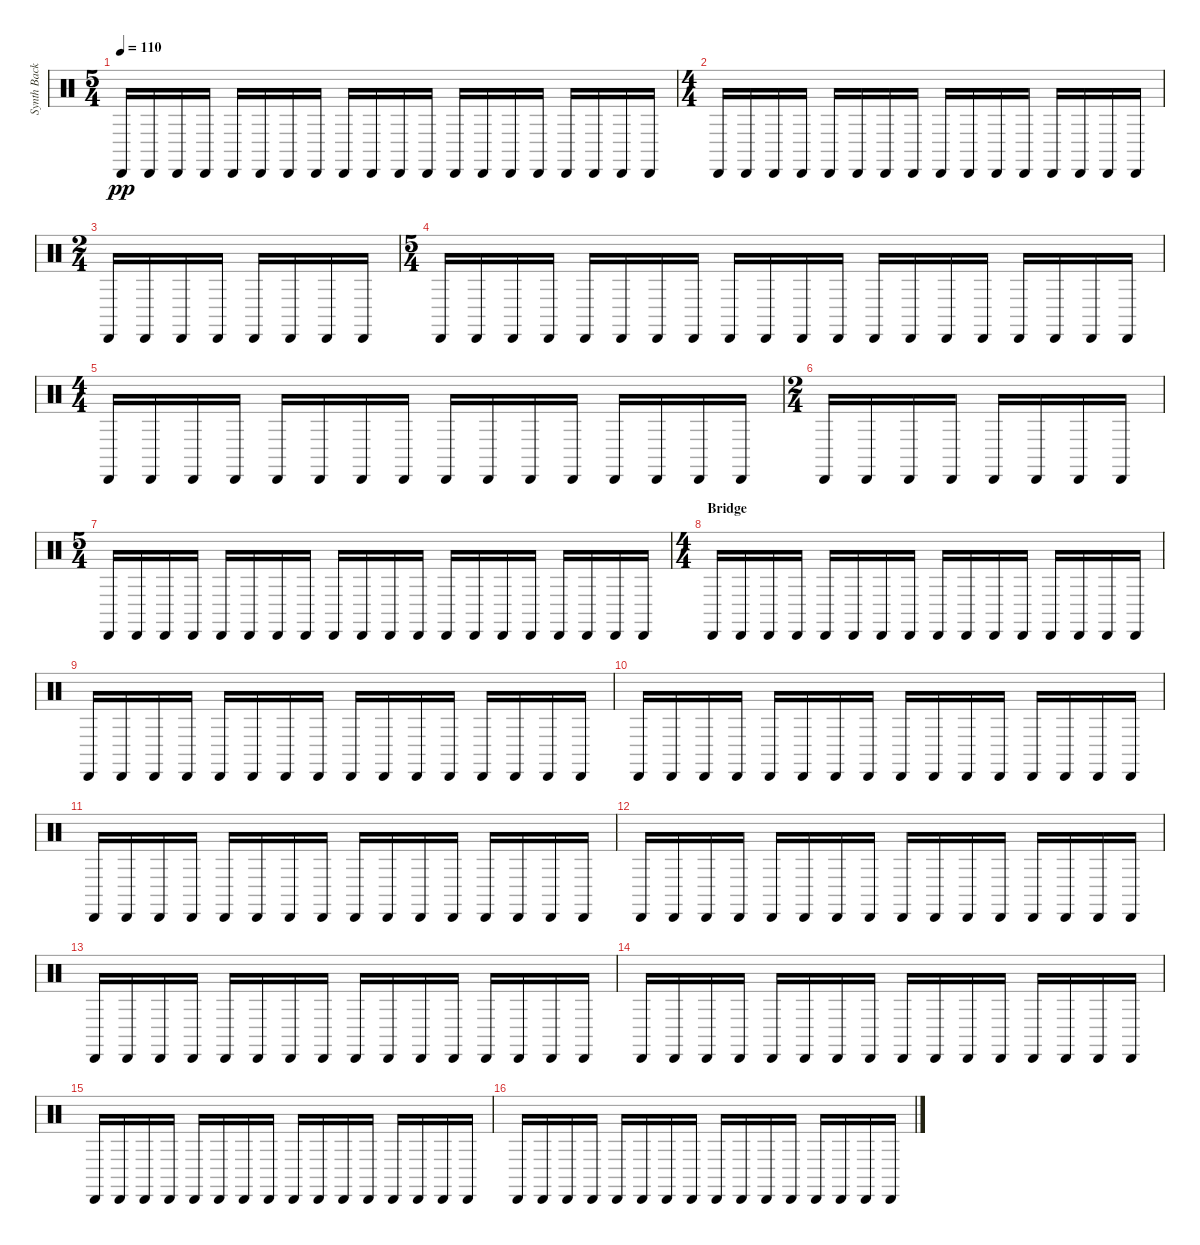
\track ("Synth Background Rhythm" "Synth Back") {instrument percussion}
\staff {score}
\articulation defaults
\ts (5 4)
\tempo 110
\clef neutral
\ks c "Cabasa (hit)".16{dy pp} "Cabasa (hit)".16 "Cabasa (hit)".16 "Cabasa (hit)".16 "Cabasa (hit)".16 "Cabasa (hit)".16 "Cabasa (hit)".16 "Cabasa (hit)".16 "Cabasa (hit)".16 "Cabasa (hit)".16 "Cabasa (hit)".16 "Cabasa (hit)".16 "Cabasa (hit)".16 "Cabasa (hit)".16 "Cabasa (hit)".16 "Cabasa (hit)".16 "Cabasa (hit)".16 "Cabasa (hit)".16 "Cabasa (hit)".16 "Cabasa (hit)".16
|
\ts (4 4)
"Cabasa (hit)".16 "Cabasa (hit)".16 "Cabasa (hit)".16 "Cabasa (hit)".16 "Cabasa (hit)".16 "Cabasa (hit)".16 "Cabasa (hit)".16 "Cabasa (hit)".16 "Cabasa (hit)".16 "Cabasa (hit)".16 "Cabasa (hit)".16 "Cabasa (hit)".16 "Cabasa (hit)".16 "Cabasa (hit)".16 "Cabasa (hit)".16 "Cabasa (hit)".16 |
\ts (2 4)
"Cabasa (hit)".16 "Cabasa (hit)".16 "Cabasa (hit)".16 "Cabasa (hit)".16 "Cabasa (hit)".16 "Cabasa (hit)".16 "Cabasa (hit)".16 "Cabasa (hit)".16 |
\ts (5 4)
"Cabasa (hit)".16 "Cabasa (hit)".16 "Cabasa (hit)".16 "Cabasa (hit)".16 "Cabasa (hit)".16 "Cabasa (hit)".16 "Cabasa (hit)".16 "Cabasa (hit)".16 "Cabasa (hit)".16 "Cabasa (hit)".16 "Cabasa (hit)".16 "Cabasa (hit)".16 "Cabasa (hit)".16 "Cabasa (hit)".16 "Cabasa (hit)".16 "Cabasa (hit)".16 "Cabasa (hit)".16 "Cabasa (hit)".16 "Cabasa (hit)".16 "Cabasa (hit)".16 |
\ts (4 4)
"Cabasa (hit)".16 "Cabasa (hit)".16 "Cabasa (hit)".16 "Cabasa (hit)".16 "Cabasa (hit)".16 "Cabasa (hit)".16 "Cabasa (hit)".16 "Cabasa (hit)".16 "Cabasa (hit)".16 "Cabasa (hit)".16 "Cabasa (hit)".16 "Cabasa (hit)".16 "Cabasa (hit)".16 "Cabasa (hit)".16 "Cabasa (hit)".16 "Cabasa (hit)".16 |
\ts (2 4)
"Cabasa (hit)".16 "Cabasa (hit)".16 "Cabasa (hit)".16 "Cabasa (hit)".16 "Cabasa (hit)".16 "Cabasa (hit)".16 "Cabasa (hit)".16 "Cabasa (hit)".16 |
\ts (5 4)
"Cabasa (hit)".16 "Cabasa (hit)".16 "Cabasa (hit)".16 "Cabasa (hit)".16 "Cabasa (hit)".16 "Cabasa (hit)".16 "Cabasa (hit)".16 "Cabasa (hit)".16 "Cabasa (hit)".16 "Cabasa (hit)".16 "Cabasa (hit)".16 "Cabasa (hit)".16 "Cabasa (hit)".16 "Cabasa (hit)".16 "Cabasa (hit)".16 "Cabasa (hit)".16 "Cabasa (hit)".16 "Cabasa (hit)".16 "Cabasa (hit)".16 "Cabasa (hit)".16 |
\ts (4 4)
\section ("" "Bridge")
"Cabasa (hit)".16 "Cabasa (hit)".16 "Cabasa (hit)".16 "Cabasa (hit)".16 "Cabasa (hit)".16 "Cabasa (hit)".16 "Cabasa (hit)".16 "Cabasa (hit)".16 "Cabasa (hit)".16 "Cabasa (hit)".16 "Cabasa (hit)".16 "Cabasa (hit)".16 "Cabasa (hit)".16 "Cabasa (hit)".16 "Cabasa (hit)".16 "Cabasa (hit)".16 |
"Cabasa (hit)".16 "Cabasa (hit)".16 "Cabasa (hit)".16 "Cabasa (hit)".16 "Cabasa (hit)".16 "Cabasa (hit)".16 "Cabasa (hit)".16 "Cabasa (hit)".16 "Cabasa (hit)".16 "Cabasa (hit)".16 "Cabasa (hit)".16 "Cabasa (hit)".16 "Cabasa (hit)".16 "Cabasa (hit)".16 "Cabasa (hit)".16 "Cabasa (hit)".16 |
"Cabasa (hit)".16 "Cabasa (hit)".16 "Cabasa (hit)".16 "Cabasa (hit)".16 "Cabasa (hit)".16 "Cabasa (hit)".16 "Cabasa (hit)".16 "Cabasa (hit)".16 "Cabasa (hit)".16 "Cabasa (hit)".16 "Cabasa (hit)".16 "Cabasa (hit)".16 "Cabasa (hit)".16 "Cabasa (hit)".16 "Cabasa (hit)".16 "Cabasa (hit)".16 |
"Cabasa (hit)".16 "Cabasa (hit)".16 "Cabasa (hit)".16 "Cabasa (hit)".16 "Cabasa (hit)".16 "Cabasa (hit)".16 "Cabasa (hit)".16 "Cabasa (hit)".16 "Cabasa (hit)".16 "Cabasa (hit)".16 "Cabasa (hit)".16 "Cabasa (hit)".16 "Cabasa (hit)".16 "Cabasa (hit)".16 "Cabasa (hit)".16 "Cabasa (hit)".16 |
"Cabasa (hit)".16 "Cabasa (hit)".16 "Cabasa (hit)".16 "Cabasa (hit)".16 "Cabasa (hit)".16 "Cabasa (hit)".16 "Cabasa (hit)".16 "Cabasa (hit)".16 "Cabasa (hit)".16 "Cabasa (hit)".16 "Cabasa (hit)".16 "Cabasa (hit)".16 "Cabasa (hit)".16 "Cabasa (hit)".16 "Cabasa (hit)".16 "Cabasa (hit)".16 |
"Cabasa (hit)".16 "Cabasa (hit)".16 "Cabasa (hit)".16 "Cabasa (hit)".16 "Cabasa (hit)".16 "Cabasa (hit)".16 "Cabasa (hit)".16 "Cabasa (hit)".16 "Cabasa (hit)".16 "Cabasa (hit)".16 "Cabasa (hit)".16 "Cabasa (hit)".16 "Cabasa (hit)".16 "Cabasa (hit)".16 "Cabasa (hit)".16 "Cabasa (hit)".16 |
"Cabasa (hit)".16 "Cabasa (hit)".16 "Cabasa (hit)".16 "Cabasa (hit)".16 "Cabasa (hit)".16 "Cabasa (hit)".16 "Cabasa (hit)".16 "Cabasa (hit)".16 "Cabasa (hit)".16 "Cabasa (hit)".16 "Cabasa (hit)".16 "Cabasa (hit)".16 "Cabasa (hit)".16 "Cabasa (hit)".16 "Cabasa (hit)".16 "Cabasa (hit)".16 |
"Cabasa (hit)".16 "Cabasa (hit)".16 "Cabasa (hit)".16 "Cabasa (hit)".16 "Cabasa (hit)".16 "Cabasa (hit)".16 "Cabasa (hit)".16 "Cabasa (hit)".16 "Cabasa (hit)".16 "Cabasa (hit)".16 "Cabasa (hit)".16 "Cabasa (hit)".16 "Cabasa (hit)".16 "Cabasa (hit)".16 "Cabasa (hit)".16 "Cabasa (hit)".16 |
"Cabasa (hit)".16 "Cabasa (hit)".16 "Cabasa (hit)".16 "Cabasa (hit)".16 "Cabasa (hit)".16 "Cabasa (hit)".16 "Cabasa (hit)".16 "Cabasa (hit)".16 "Cabasa (hit)".16 "Cabasa (hit)".16 "Cabasa (hit)".16 "Cabasa (hit)".16 "Cabasa (hit)".16 "Cabasa (hit)".16 "Cabasa (hit)".16 "Cabasa (hit)".16
